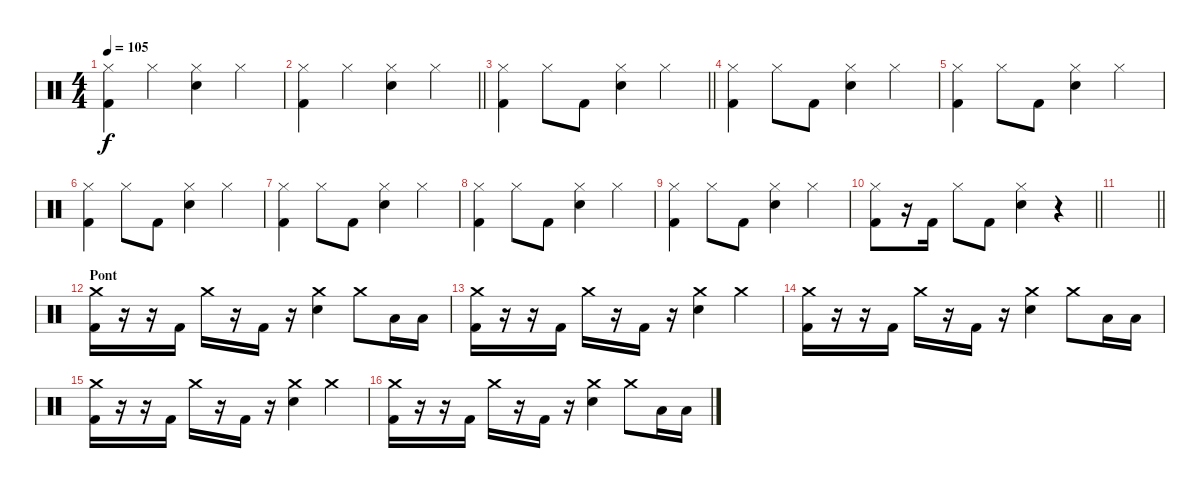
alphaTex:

\track "" {instrument percussion}
\staff {score}
\articulation defaults
\ts (4 4)
\tempo 105
\clef neutral
\ks c
("Hi-Hat (closed)" "Kick (hit) 2").4{dy f} "Hi-Hat (closed)".4 ("Hi-Hat (closed)" "Snare (hit) 2").4 "Hi-Hat (closed)".4 |
\barLineRight lightlight
("Hi-Hat (closed)" "Kick (hit) 2").4 "Hi-Hat (closed)".4 ("Hi-Hat (closed)" "Snare (hit) 2").4 "Hi-Hat (closed)".4 |
\section ("" "")
\barLineRight lightlight
("Hi-Hat (closed)" "Kick (hit) 2").4 "Hi-Hat (closed)".8 "Kick (hit) 2".8 ("Hi-Hat (closed)" "Snare (hit) 2").4 "Hi-Hat (closed)".4 |
("Hi-Hat (closed)" "Kick (hit) 2").4 "Hi-Hat (closed)".8 "Kick (hit) 2".8 ("Hi-Hat (closed)" "Snare (hit) 2").4 "Hi-Hat (closed)".4 |
("Hi-Hat (closed)" "Kick (hit) 2").4 "Hi-Hat (closed)".8 "Kick (hit) 2".8 ("Hi-Hat (closed)" "Snare (hit) 2").4 "Hi-Hat (closed)".4 |
("Hi-Hat (closed)" "Kick (hit) 2").4 "Hi-Hat (closed)".8 "Kick (hit) 2".8 ("Hi-Hat (closed)" "Snare (hit) 2").4 "Hi-Hat (closed)".4 |
("Hi-Hat (closed)" "Kick (hit) 2").4 "Hi-Hat (closed)".8 "Kick (hit) 2".8 ("Hi-Hat (closed)" "Snare (hit) 2").4 "Hi-Hat (closed)".4 |
("Hi-Hat (closed)" "Kick (hit) 2").4 "Hi-Hat (closed)".8 "Kick (hit) 2".8 ("Hi-Hat (closed)" "Snare (hit) 2").4 "Hi-Hat (closed)".4 |
("Hi-Hat (closed)" "Kick (hit) 2").4 "Hi-Hat (closed)".8 "Kick (hit) 2".8 ("Hi-Hat (closed)" "Snare (hit) 2").4 "Hi-Hat (closed)".4 |
\barLineRight lightlight
("Hi-Hat (closed)" "Kick (hit) 2").8 r.16 "Kick (hit) 2".16 "Hi-Hat (closed)".8 "Kick (hit) 2".8 ("Hi-Hat (closed)" "Snare (hit) 2").4 r.4 |
\section ("" "")
\barLineRight lightlight
|
\section ("" "Pont")
("Crash medium (hit)" "Kick (hit) 2").16 r.16 r.16 "Kick (hit) 2".16 "Crash medium (hit)".16 r.16 "Kick (hit) 2".16 r.16 ("Crash medium (hit)" "Snare (hit) 2").4 "Crash medium (hit)".8 "Low Tom (hit)".16 "Low Tom (hit)".16 |
("Crash medium (hit)" "Kick (hit) 2").16 r.16 r.16 "Kick (hit) 2".16 "Crash medium (hit)".16 r.16 "Kick (hit) 2".16 r.16 ("Crash medium (hit)" "Snare (hit) 2").4 "Crash medium (hit)".4 |
("Crash medium (hit)" "Kick (hit) 2").16 r.16 r.16 "Kick (hit) 2".16 "Crash medium (hit)".16 r.16 "Kick (hit) 2".16 r.16 ("Crash medium (hit)" "Snare (hit) 2").4 "Crash medium (hit)".8 "Low Tom (hit)".16 "Low Tom (hit)".16 |
("Crash medium (hit)" "Kick (hit) 2").16 r.16 r.16 "Kick (hit) 2".16 "Crash medium (hit)".16 r.16 "Kick (hit) 2".16 r.16 ("Crash medium (hit)" "Snare (hit) 2").4 "Crash medium (hit)".4 |
("Crash medium (hit)" "Kick (hit) 2").16 r.16 r.16 "Kick (hit) 2".16 "Crash medium (hit)".16 r.16 "Kick (hit) 2".16 r.16 ("Crash medium (hit)" "Snare (hit) 2").4 "Crash medium (hit)".8 "Low Tom (hit)".16 "Low Tom (hit)".16
